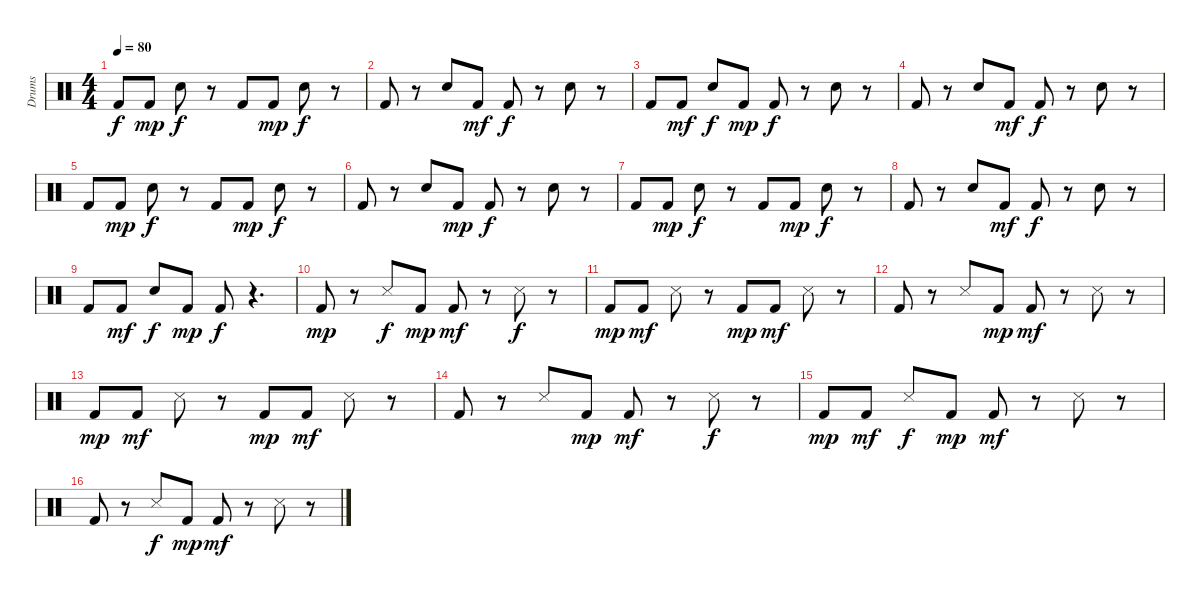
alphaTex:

\track ("Drums" "Drums") {instrument percussion}
\staff {score}
\articulation defaults
\ts (4 4)
\tempo 80
\clef neutral
\ks c "Kick (hit) 2".8{dy f} "Kick (hit) 2".8{dy mp} "Electric Snare (hit)".8{dy f}
r.8 "Kick (hit) 2".8 "Kick (hit) 2".8{dy mp} "Electric Snare (hit)".8{dy f} r.8 |
"Kick (hit) 2".8 r.8 "Electric Snare (hit)".8 "Kick (hit) 2".8{dy mf} "Kick (hit) 2".8{dy f} r.8 "Electric Snare (hit)".8 r.8 |
"Kick (hit) 2".8 "Kick (hit) 2".8{dy mf} "Electric Snare (hit)".8{dy f} "Kick (hit) 2".8{dy mp} "Kick (hit) 2".8{dy f} r.8 "Electric Snare (hit)".8 r.8 |
"Kick (hit) 2".8 r.8 "Electric Snare (hit)".8 "Kick (hit) 2".8{dy mf} "Kick (hit) 2".8{dy f} r.8 "Electric Snare (hit)".8 r.8 |
"Kick (hit) 2".8 "Kick (hit) 2".8{dy mp} "Electric Snare (hit)".8{dy f} r.8 "Kick (hit) 2".8 "Kick (hit) 2".8{dy mp} "Electric Snare (hit)".8{dy f} r.8 |
"Kick (hit) 2".8 r.8 "Electric Snare (hit)".8 "Kick (hit) 2".8{dy mp} "Kick (hit) 2".8{dy f} r.8 "Electric Snare (hit)".8 r.8 |
"Kick (hit) 2".8 "Kick (hit) 2".8{dy mp} "Electric Snare (hit)".8{dy f} r.8 "Kick (hit) 2".8 "Kick (hit) 2".8{dy mp} "Electric Snare (hit)".8{dy f} r.8 |
"Kick (hit) 2".8 r.8 "Electric Snare (hit)".8 "Kick (hit) 2".8{dy mf} "Kick (hit) 2".8{dy f} r.8 "Electric Snare (hit)".8 r.8 |
"Kick (hit) 2".8 "Kick (hit) 2".8{dy mf} "Electric Snare (hit)".8{dy f} "Kick (hit) 2".8{dy mp} "Kick (hit) 2".8{dy f} r.4{d} |
"Kick (hit) 2".8{dy mp} r.8 "Snare (side stick) 3".8{dy f} "Kick (hit) 2".8{dy mp} "Kick (hit) 2".8{dy mf} r.8 "Snare (side stick) 3".8{dy f} r.8 |
"Kick (hit) 2".8{dy mp} "Kick (hit) 2".8{dy mf} "Snare (side stick) 3".8 r.8 "Kick (hit) 2".8{dy mp} "Kick (hit) 2".8{dy mf} "Snare (side stick) 3".8 r.8 |
"Kick (hit) 2".8 r.8 "Snare (side stick) 3".8 "Kick (hit) 2".8{dy mp} "Kick (hit) 2".8{dy mf} r.8 "Snare (side stick) 3".8 r.8 |
"Kick (hit) 2".8{dy mp} "Kick (hit) 2".8{dy mf} "Snare (side stick) 3".8 r.8 "Kick (hit) 2".8{dy mp} "Kick (hit) 2".8{dy mf} "Snare (side stick) 3".8 r.8 |
"Kick (hit) 2".8 r.8 "Snare (side stick) 3".8 "Kick (hit) 2".8{dy mp} "Kick (hit) 2".8{dy mf} r.8 "Snare (side stick) 3".8{dy f} r.8 |
"Kick (hit) 2".8{dy mp} "Kick (hit) 2".8{dy mf} "Snare (side stick) 3".8{dy f} "Kick (hit) 2".8{dy mp} "Kick (hit) 2".8{dy mf} r.8 "Snare (side stick) 3".8 r.8 |
"Kick (hit) 2".8 r.8 "Snare (side stick) 3".8{dy f} "Kick (hit) 2".8{dy mp} "Kick (hit) 2".8{dy mf} r.8 "Snare (side stick) 3".8 r.8
